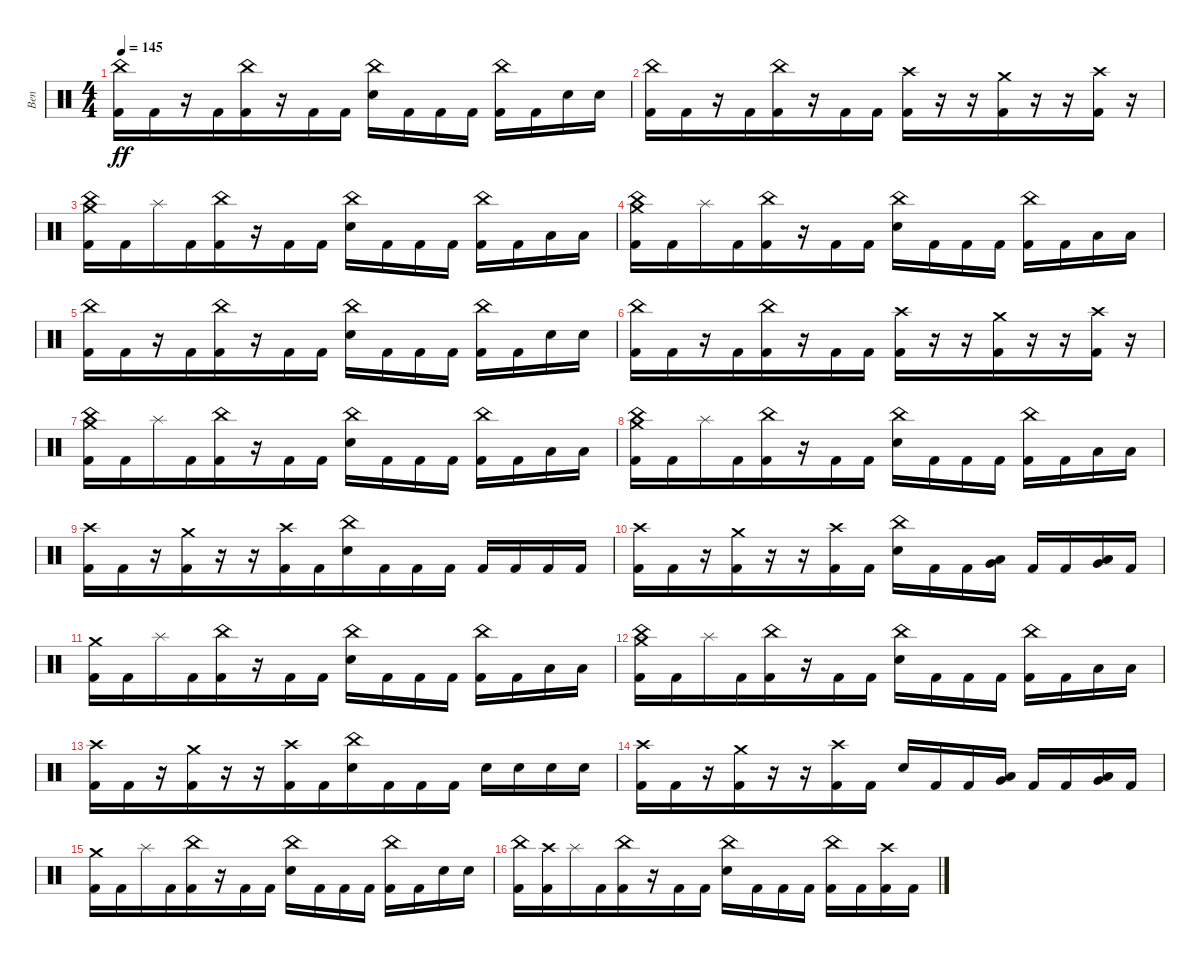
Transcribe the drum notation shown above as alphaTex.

\track ("Ben" "Ben") {instrument percussion}
\staff {score}
\articulation defaults
\ts (4 4)
\tempo 145
\clef neutral
\ks c
("China (hit)" "Kick (hit) 2").16{dy ff beam merge} "Kick (hit) 2".16 r.16 "Kick (hit) 2".16{beam merge} ("China (hit)" "Kick (hit) 2").16 r.16 "Kick (hit) 2".16 "Kick (hit) 2".16 ("Electric Snare (hit)" "China (hit)").16{beam merge} "Kick (hit) 2".16 "Kick (hit) 2".16 "Kick (hit) 2".16 ("Kick (hit) 2" "China (hit)").16 "Kick (hit) 2".16 "Electric Snare (hit)".16 "Electric Snare (hit)".16 |
("China (hit)" "Kick (hit) 2").16{beam merge} "Kick (hit) 2".16 r.16 "Kick (hit) 2".16{beam merge} ("China (hit)" "Kick (hit) 2").16 r.16 "Kick (hit) 2".16 "Kick (hit) 2".16 ("Crash high (hit)" "Kick (hit) 2").16{beam merge} r.16 r.16 ("Crash medium (hit)" "Kick (hit) 2").16{beam merge} r.16{beam merge} r.16 ("Crash high (hit)" "Kick (hit) 2").16 r.16 |
("Crash medium (hit)" "China (hit)" "Kick (hit) 2").16{beam merge} "Kick (hit) 2".16 "Splash (hit)".16 "Kick (hit) 2".16{beam merge} ("China (hit)" "Kick (hit) 2").16 r.16 "Kick (hit) 2".16 "Kick (hit) 2".16 ("Electric Snare (hit)" "China (hit)").16{beam merge} "Kick (hit) 2".16 "Kick (hit) 2".16 "Kick (hit) 2".16 ("Kick (hit) 2" "China (hit)").16 "Kick (hit) 2".16 "Low Tom (hit)".16 "Low Tom (hit)".16 |
("Crash medium (hit)" "China (hit)" "Kick (hit) 2").16{beam merge} "Kick (hit) 2".16 "Splash (hit)".16 "Kick (hit) 2".16{beam merge} ("China (hit)" "Kick (hit) 2").16 r.16 "Kick (hit) 2".16 "Kick (hit) 2".16 ("Electric Snare (hit)" "China (hit)").16{beam merge} "Kick (hit) 2".16 "Kick (hit) 2".16 "Kick (hit) 2".16 ("Kick (hit) 2" "China (hit)").16 "Kick (hit) 2".16 "Low Tom (hit)".16 "Low Tom (hit)".16 |
("China (hit)" "Kick (hit) 2").16{beam merge} "Kick (hit) 2".16 r.16 "Kick (hit) 2".16{beam merge} ("China (hit)" "Kick (hit) 2").16 r.16 "Kick (hit) 2".16 "Kick (hit) 2".16 ("Electric Snare (hit)" "China (hit)").16{beam merge} "Kick (hit) 2".16 "Kick (hit) 2".16 "Kick (hit) 2".16 ("Kick (hit) 2" "China (hit)").16 "Kick (hit) 2".16 "Electric Snare (hit)".16 "Electric Snare (hit)".16 |
("China (hit)" "Kick (hit) 2").16{beam merge} "Kick (hit) 2".16 r.16 "Kick (hit) 2".16{beam merge} ("China (hit)" "Kick (hit) 2").16 r.16 "Kick (hit) 2".16 "Kick (hit) 2".16 ("Crash high (hit)" "Kick (hit) 2").16{beam merge} r.16 r.16 ("Crash medium (hit)" "Kick (hit) 2").16{beam merge} r.16{beam merge} r.16 ("Crash high (hit)" "Kick (hit) 2").16 r.16 |
("Crash medium (hit)" "China (hit)" "Kick (hit) 2").16{beam merge} "Kick (hit) 2".16 "Splash (hit)".16 "Kick (hit) 2".16{beam merge} ("China (hit)" "Kick (hit) 2").16 r.16 "Kick (hit) 2".16 "Kick (hit) 2".16 ("Electric Snare (hit)" "China (hit)").16{beam merge} "Kick (hit) 2".16 "Kick (hit) 2".16 "Kick (hit) 2".16 ("Kick (hit) 2" "China (hit)").16 "Kick (hit) 2".16 "Low Tom (hit)".16 "Low Tom (hit)".16 |
("Crash medium (hit)" "China (hit)" "Kick (hit) 2").16{beam merge} "Kick (hit) 2".16 "Splash (hit)".16 "Kick (hit) 2".16{beam merge} ("China (hit)" "Kick (hit) 2").16 r.16 "Kick (hit) 2".16 "Kick (hit) 2".16 ("Electric Snare (hit)" "China (hit)").16{beam merge} "Kick (hit) 2".16 "Kick (hit) 2".16 "Kick (hit) 2".16 ("Kick (hit) 2" "China (hit)").16 "Kick (hit) 2".16 "Low Tom (hit)".16 "Low Tom (hit)".16 |
("Crash high (hit)" "Kick (hit) 2").16{beam merge} "Kick (hit) 2".16 r.16 ("Crash medium (hit)" "Kick (hit) 2").16{beam merge} r.16 r.16 ("Crash high (hit)" "Kick (hit) 2").16 "Kick (hit) 2".16{beam merge} ("Electric Snare (hit)" "China (hit)").16 "Kick (hit) 2".16 "Kick (hit) 2".16 "Kick (hit) 2".16 "Kick (hit) 2".16 "Kick (hit) 2".16 "Kick (hit) 2".16{beam merge} "Kick (hit) 2".16 |
("Crash high (hit)" "Kick (hit) 2").16{beam merge} "Kick (hit) 2".16 r.16 ("Crash medium (hit)" "Kick (hit) 2").16{beam merge} r.16 r.16 ("Crash high (hit)" "Kick (hit) 2").16 "Kick (hit) 2".16 ("Electric Snare (hit)" "China (hit)").16 "Kick (hit) 2".16 "Kick (hit) 2".16 ("Low Tom (hit)" "Very Low Tom (hit)").16 "Kick (hit) 2".16 "Kick (hit) 2".16 ("Low Tom (hit)" "Very Low Tom (hit)").16 "Kick (hit) 2".16 |
("Crash medium (hit)" "Kick (hit) 2").16{beam merge} "Kick (hit) 2".16 "Splash (hit)".16 "Kick (hit) 2".16{beam merge} ("China (hit)" "Kick (hit) 2").16 r.16 "Kick (hit) 2".16 "Kick (hit) 2".16 ("Electric Snare (hit)" "China (hit)").16{beam merge} "Kick (hit) 2".16 "Kick (hit) 2".16 "Kick (hit) 2".16 ("Kick (hit) 2" "China (hit)").16 "Kick (hit) 2".16 "Low Tom (hit)".16 "Low Tom (hit)".16 |
("Crash medium (hit)" "China (hit)" "Kick (hit) 2").16{beam merge} "Kick (hit) 2".16 "Splash (hit)".16 "Kick (hit) 2".16{beam merge} ("China (hit)" "Kick (hit) 2").16 r.16 "Kick (hit) 2".16 "Kick (hit) 2".16 ("Electric Snare (hit)" "China (hit)").16{beam merge} "Kick (hit) 2".16 "Kick (hit) 2".16 "Kick (hit) 2".16 ("Kick (hit) 2" "China (hit)").16 "Kick (hit) 2".16 "Low Tom (hit)".16 "Low Tom (hit)".16 |
("Crash high (hit)" "Kick (hit) 2").16{beam merge} "Kick (hit) 2".16 r.16 ("Crash medium (hit)" "Kick (hit) 2").16{beam merge} r.16 r.16 ("Crash high (hit)" "Kick (hit) 2").16 "Kick (hit) 2".16{beam merge} ("Electric Snare (hit)" "China (hit)").16 "Kick (hit) 2".16 "Kick (hit) 2".16 "Kick (hit) 2".16 "Electric Snare (hit)".16 "Electric Snare (hit)".16 "Electric Snare (hit)".16{beam merge} "Electric Snare (hit)".16 |
("Crash high (hit)" "Kick (hit) 2").16{beam merge} "Kick (hit) 2".16 r.16 ("Crash medium (hit)" "Kick (hit) 2").16{beam merge} r.16 r.16 ("Crash high (hit)" "Kick (hit) 2").16 "Kick (hit) 2".16 "Electric Snare (hit)".16 "Kick (hit) 2".16 "Kick (hit) 2".16 ("Low Tom (hit)" "Very Low Tom (hit)").16 "Kick (hit) 2".16 "Kick (hit) 2".16 ("Low Tom (hit)" "Very Low Tom (hit)").16 "Kick (hit) 2".16 |
("Crash medium (hit)" "Kick (hit) 2").16{beam merge} "Kick (hit) 2".16 "Splash (hit)".16 "Kick (hit) 2".16{beam merge} ("China (hit)" "Kick (hit) 2").16 r.16 "Kick (hit) 2".16 "Kick (hit) 2".16 ("Electric Snare (hit)" "China (hit)").16{beam merge} "Kick (hit) 2".16 "Kick (hit) 2".16 "Kick (hit) 2".16 ("Kick (hit) 2" "China (hit)").16 "Kick (hit) 2".16 "Electric Snare (hit)".16 "Electric Snare (hit)".16 |
("China (hit)" "Kick (hit) 2").16{beam merge} ("Crash high (hit)" "Kick (hit) 2").16 "Splash (hit)".16 "Kick (hit) 2".16{beam merge} ("China (hit)" "Kick (hit) 2").16 r.16 "Kick (hit) 2".16 "Kick (hit) 2".16 ("Electric Snare (hit)" "China (hit)").16{beam merge} "Kick (hit) 2".16 "Kick (hit) 2".16 "Kick (hit) 2".16 ("Kick (hit) 2" "China (hit)").16 "Kick (hit) 2".16 ("Crash high (hit)" "Kick (hit) 2").16 "Kick (hit) 2".16
